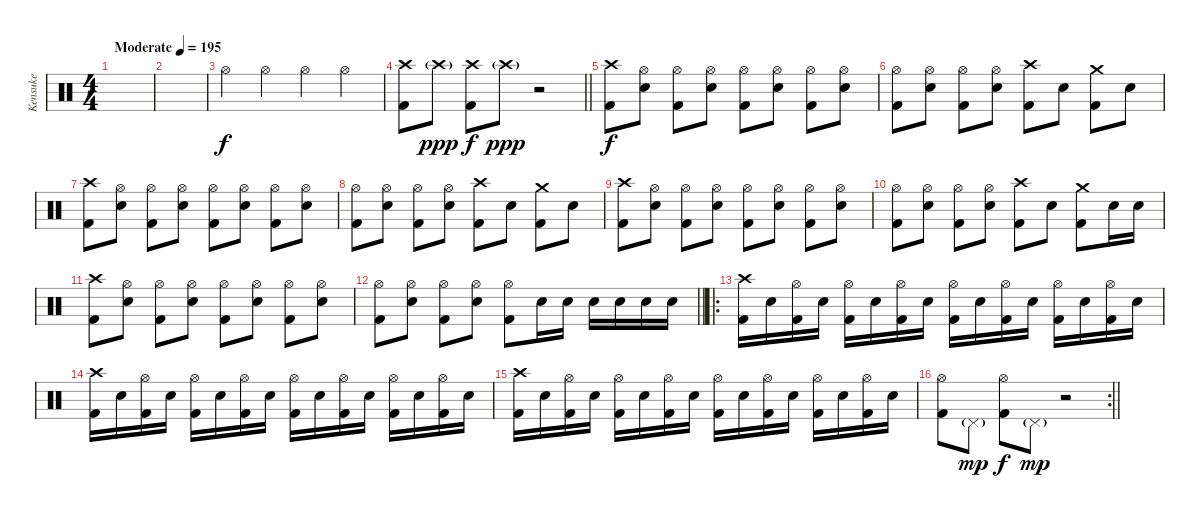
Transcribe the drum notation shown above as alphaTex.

\track ("Kensuke" "Kensuke") {instrument percussion}
\staff {score}
\articulation defaults
\ts (4 4)
\tempo (195 "Moderate")
\clef neutral
\ks c
|
|
"Hi-Hat (open)".4 "Hi-Hat (open)".4 "Hi-Hat (open)".4 "Hi-Hat (open)".4 |
\barLineRight lightlight
("Crash high (hit)" "Kick (hit) 2").8 "Crash high (hit)"{g}.8{dy ppp} ("Crash high (hit)" "Kick (hit) 2").8{dy f} "Crash high (hit)"{g}.8{dy ppp} r.2 |
\section ("" "")
("Crash high (hit)" "Kick (hit) 2").8{dy f} ("Hi-Hat (open)" "Electric Snare (hit)").8 ("Hi-Hat (open)" "Kick (hit) 2").8 ("Hi-Hat (open)" "Electric Snare (hit)").8 ("Hi-Hat (open)" "Kick (hit) 2").8 ("Hi-Hat (open)" "Electric Snare (hit)").8 ("Hi-Hat (open)" "Kick (hit) 2").8 ("Hi-Hat (open)" "Electric Snare (hit)").8 |
("Hi-Hat (open)" "Kick (hit) 2").8 ("Hi-Hat (open)" "Electric Snare (hit)").8 ("Hi-Hat (open)" "Kick (hit) 2").8 ("Hi-Hat (open)" "Electric Snare (hit)").8 ("Crash high (hit)" "Kick (hit) 2").8 "Electric Snare (hit)".8 ("Crash medium (hit)" "Kick (hit) 2").8 "Electric Snare (hit)".8 |
("Crash high (hit)" "Kick (hit) 2").8 ("Hi-Hat (open)" "Electric Snare (hit)").8 ("Hi-Hat (open)" "Kick (hit) 2").8 ("Hi-Hat (open)" "Electric Snare (hit)").8 ("Hi-Hat (open)" "Kick (hit) 2").8 ("Hi-Hat (open)" "Electric Snare (hit)").8 ("Hi-Hat (open)" "Kick (hit) 2").8 ("Hi-Hat (open)" "Electric Snare (hit)").8 |
("Hi-Hat (open)" "Kick (hit) 2").8 ("Hi-Hat (open)" "Electric Snare (hit)").8 ("Hi-Hat (open)" "Kick (hit) 2").8 ("Hi-Hat (open)" "Electric Snare (hit)").8 ("Crash high (hit)" "Kick (hit) 2").8 "Electric Snare (hit)".8 ("Crash medium (hit)" "Kick (hit) 2").8 "Electric Snare (hit)".8 |
("Crash high (hit)" "Kick (hit) 2").8 ("Hi-Hat (open)" "Electric Snare (hit)").8 ("Hi-Hat (open)" "Kick (hit) 2").8 ("Hi-Hat (open)" "Electric Snare (hit)").8 ("Hi-Hat (open)" "Kick (hit) 2").8 ("Hi-Hat (open)" "Electric Snare (hit)").8 ("Hi-Hat (open)" "Kick (hit) 2").8 ("Hi-Hat (open)" "Electric Snare (hit)").8 |
("Hi-Hat (open)" "Kick (hit) 2").8 ("Hi-Hat (open)" "Electric Snare (hit)").8 ("Hi-Hat (open)" "Kick (hit) 2").8 ("Hi-Hat (open)" "Electric Snare (hit)").8 ("Crash high (hit)" "Kick (hit) 2").8 "Electric Snare (hit)".8 ("Crash medium (hit)" "Kick (hit) 2").8 "Electric Snare (hit)".16 "Electric Snare (hit)".16 |
("Crash high (hit)" "Kick (hit) 2").8 ("Hi-Hat (open)" "Electric Snare (hit)").8 ("Hi-Hat (open)" "Kick (hit) 2").8 ("Hi-Hat (open)" "Electric Snare (hit)").8 ("Hi-Hat (open)" "Kick (hit) 2").8 ("Hi-Hat (open)" "Electric Snare (hit)").8 ("Hi-Hat (open)" "Kick (hit) 2").8 ("Hi-Hat (open)" "Electric Snare (hit)").8 |
\barLineRight lightlight
("Hi-Hat (open)" "Kick (hit) 2").8 ("Hi-Hat (open)" "Electric Snare (hit)").8 ("Hi-Hat (open)" "Kick (hit) 2").8 ("Hi-Hat (open)" "Electric Snare (hit)").8 ("Hi-Hat (open)" "Kick (hit) 2").8 "Electric Snare (hit)".16 "Electric Snare (hit)".16 "Electric Snare (hit)".16 "Electric Snare (hit)".16 "Electric Snare (hit)".16 "Electric Snare (hit)".16 |
\ro
\section ("" "")
("Crash high (hit)" "Kick (hit) 2").16 "Electric Snare (hit)".16 ("Hi-Hat (open)" "Kick (hit) 2").16 "Electric Snare (hit)".16 ("Hi-Hat (open)" "Kick (hit) 2").16 "Electric Snare (hit)".16 ("Hi-Hat (open)" "Kick (hit) 2").16 "Electric Snare (hit)".16 ("Hi-Hat (open)" "Kick (hit) 2").16 "Electric Snare (hit)".16 ("Hi-Hat (open)" "Kick (hit) 2").16 "Electric Snare (hit)".16 ("Hi-Hat (open)" "Kick (hit) 2").16 "Electric Snare (hit)".16 ("Hi-Hat (open)" "Kick (hit) 2").16 "Electric Snare (hit)".16 |
("Crash high (hit)" "Kick (hit) 2").16 "Electric Snare (hit)".16 ("Hi-Hat (open)" "Kick (hit) 2").16 "Electric Snare (hit)".16 ("Hi-Hat (open)" "Kick (hit) 2").16 "Electric Snare (hit)".16 ("Hi-Hat (open)" "Kick (hit) 2").16 "Electric Snare (hit)".16 ("Hi-Hat (open)" "Kick (hit) 2").16 "Electric Snare (hit)".16 ("Hi-Hat (open)" "Kick (hit) 2").16 "Electric Snare (hit)".16 ("Hi-Hat (open)" "Kick (hit) 2").16 "Electric Snare (hit)".16 ("Hi-Hat (open)" "Kick (hit) 2").16 "Electric Snare (hit)".16 |
("Crash high (hit)" "Kick (hit) 2").16 "Electric Snare (hit)".16 ("Hi-Hat (open)" "Kick (hit) 2").16 "Electric Snare (hit)".16 ("Hi-Hat (open)" "Kick (hit) 2").16 "Electric Snare (hit)".16 ("Hi-Hat (open)" "Kick (hit) 2").16 "Electric Snare (hit)".16 ("Hi-Hat (open)" "Kick (hit) 2").16 "Electric Snare (hit)".16 ("Hi-Hat (open)" "Kick (hit) 2").16 "Electric Snare (hit)".16 ("Hi-Hat (open)" "Kick (hit) 2").16 "Electric Snare (hit)".16 ("Hi-Hat (open)" "Kick (hit) 2").16 "Electric Snare (hit)".16 |
\rc 2
\barLineRight lightlight
("Hi-Hat (open)" "Kick (hit) 2").8 "Pedal Hi-Hat (hit)"{g}.8{dy mp} ("Hi-Hat (open)" "Kick (hit) 2").8{dy f} "Pedal Hi-Hat (hit)"{g}.8{dy mp} r.2
